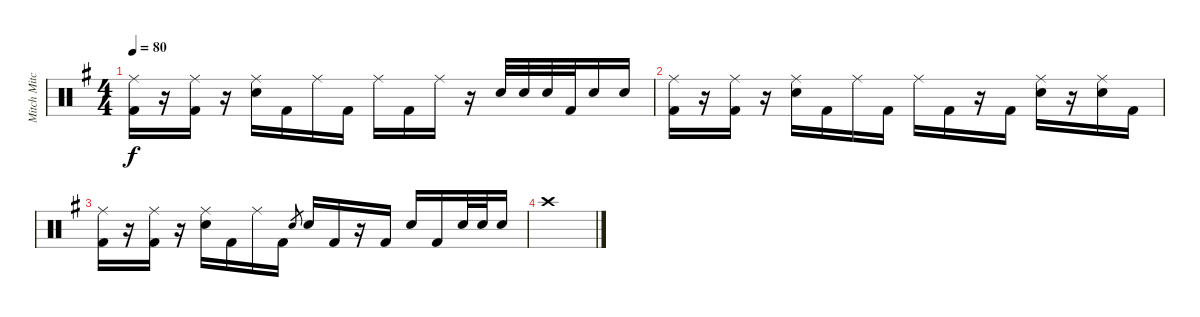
\track ("Mitch Mitchell" "Mitch Mitc") {instrument percussion}
\staff {score}
\articulation defaults
\ts (4 4)
\tempo 80
\clef neutral
\ks eminor
("Ride (middle)" "Kick (hit) 2").16{dy f} r.16 ("Ride (middle)" "Kick (hit) 2").16 r.16 ("Ride (middle)" "Electric Snare (hit)").16 "Kick (hit) 2".16 "Ride (middle)".16 "Kick (hit) 2".16 "Ride (middle)".16 "Kick (hit) 2".16 "Ride (middle)".16 r.16 "Electric Snare (hit)".32 "Electric Snare (hit)".32 "Electric Snare (hit)".32 "Kick (hit) 2".32 "Electric Snare (hit)".16 "Electric Snare (hit)".16 |
("Ride (middle)" "Kick (hit) 2").16 r.16 ("Ride (middle)" "Kick (hit) 2").16 r.16 ("Ride (middle)" "Electric Snare (hit)").16 "Kick (hit) 2".16 "Ride (middle)".16 "Kick (hit) 2".16 "Ride (middle)".16 "Kick (hit) 2".16 r.16 "Kick (hit) 2".16 ("Ride (middle)" "Electric Snare (hit)").16 r.16 ("Ride (middle)" "Electric Snare (hit)").16 "Kick (hit) 2".16 |
("Ride (middle)" "Kick (hit) 2").16 r.16 ("Ride (middle)" "Kick (hit) 2").16 r.16 ("Ride (middle)" "Electric Snare (hit)").16 "Kick (hit) 2".16 "Ride (middle)".16 "Kick (hit) 2".16 "Electric Snare (hit)".8{gr} "Electric Snare (hit)".16 "Kick (hit) 2".16 r.16 "Kick (hit) 2".16 "Electric Snare (hit)".16 "Kick (hit) 2".16 "Electric Snare (hit)".32 "Electric Snare (hit)".32 "Electric Snare (hit)".16 |
"Crash high (hit)".1
